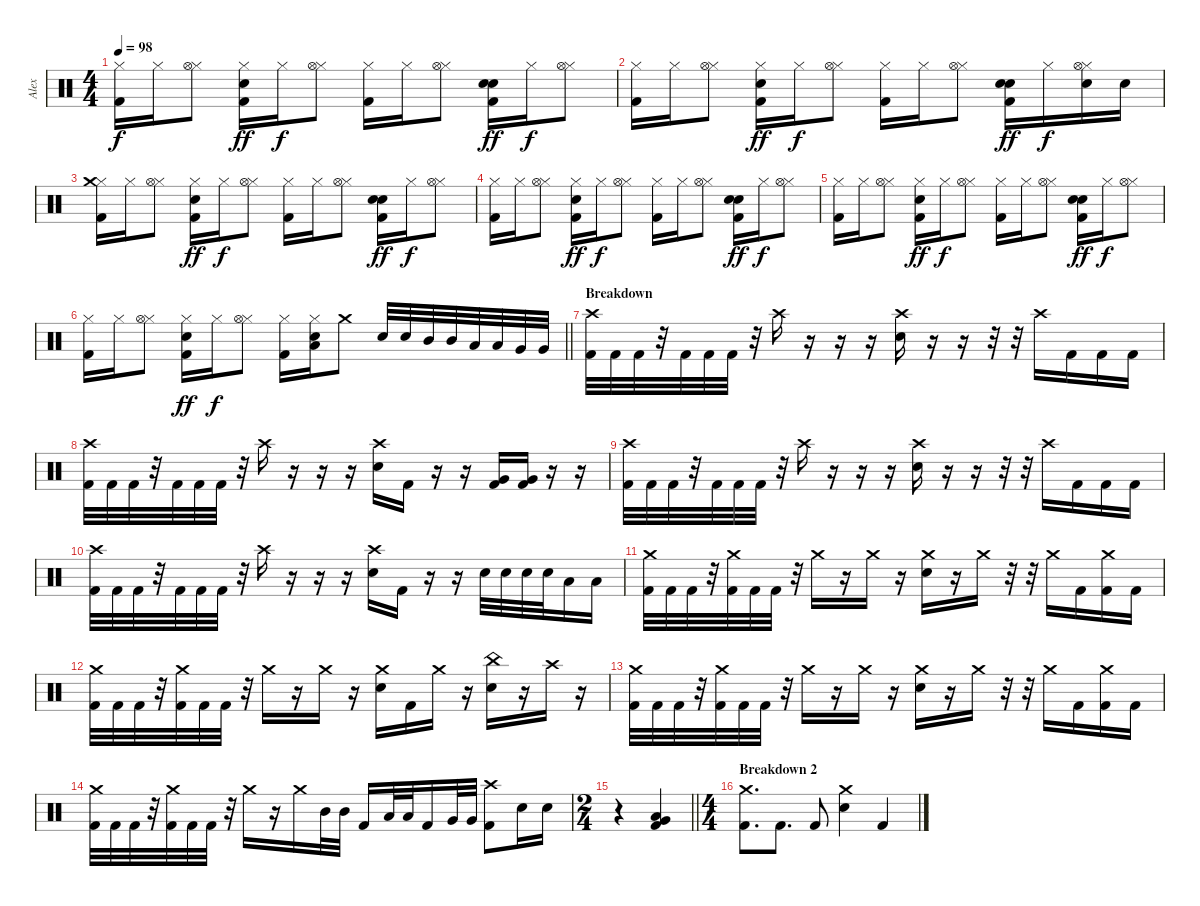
\track ("Alex" "Alex") {instrument percussion}
\staff {score}
\articulation defaults
\ts (4 4)
\tempo 98
\clef neutral
\ks c
("Hi-Hat (closed)" "Kick (hit) 2").16{dy f} "Hi-Hat (closed)".16 ("Hi-Hat (closed)" "Hi-Hat (open)").8 ("Hi-Hat (closed)" "Snare (hit) 2" "Kick (hit) 2").16{dy ff} "Hi-Hat (closed)".16{dy f} ("Hi-Hat (closed)" "Hi-Hat (open)").8 ("Hi-Hat (closed)" "Kick (hit) 2").16 "Hi-Hat (closed)".16 ("Hi-Hat (closed)" "Hi-Hat (open)").8 ("Snare (hit)" "Snare (hit) 2" "Kick (hit) 2").16{dy ff} "Hi-Hat (closed)".16{dy f} ("Hi-Hat (closed)" "Hi-Hat (open)").8 |
("Hi-Hat (closed)" "Kick (hit) 2").16 "Hi-Hat (closed)".16 ("Hi-Hat (closed)" "Hi-Hat (open)").8 ("Hi-Hat (closed)" "Snare (hit) 2" "Kick (hit) 2").16{dy ff} "Hi-Hat (closed)".16{dy f} ("Hi-Hat (closed)" "Hi-Hat (open)").8 ("Hi-Hat (closed)" "Kick (hit) 2").16 "Hi-Hat (closed)".16 ("Hi-Hat (closed)" "Hi-Hat (open)").8 ("Snare (hit)" "Snare (hit) 2" "Kick (hit) 2").16{dy ff} "Hi-Hat (closed)".16{dy f} ("Hi-Hat (closed)" "Hi-Hat (open)" "Snare (hit) 2").16 "Snare (hit) 2".16 |
("Hi-Hat (closed)" "Crash medium (hit)" "Kick (hit) 2").16 "Hi-Hat (closed)".16 ("Hi-Hat (closed)" "Hi-Hat (open)").8 ("Hi-Hat (closed)" "Snare (hit) 2" "Kick (hit) 2").16{dy ff} "Hi-Hat (closed)".16{dy f} ("Hi-Hat (closed)" "Hi-Hat (open)").8 ("Hi-Hat (closed)" "Kick (hit) 2").16 "Hi-Hat (closed)".16 ("Hi-Hat (closed)" "Hi-Hat (open)").8 ("Snare (hit)" "Snare (hit) 2" "Kick (hit) 2").16{dy ff} "Hi-Hat (closed)".16{dy f} ("Hi-Hat (closed)" "Hi-Hat (open)").8 |
("Hi-Hat (closed)" "Kick (hit) 2").16 "Hi-Hat (closed)".16 ("Hi-Hat (closed)" "Hi-Hat (open)").8 ("Hi-Hat (closed)" "Snare (hit) 2" "Kick (hit) 2").16{dy ff} "Hi-Hat (closed)".16{dy f} ("Hi-Hat (closed)" "Hi-Hat (open)").8 ("Hi-Hat (closed)" "Kick (hit) 2").16 "Hi-Hat (closed)".16 ("Hi-Hat (closed)" "Hi-Hat (open)").8 ("Snare (hit)" "Snare (hit) 2" "Kick (hit) 2").16{dy ff} "Hi-Hat (closed)".16{dy f} ("Hi-Hat (closed)" "Hi-Hat (open)").8 |
("Hi-Hat (closed)" "Kick (hit) 2").16 "Hi-Hat (closed)".16 ("Hi-Hat (closed)" "Hi-Hat (open)").8 ("Hi-Hat (closed)" "Snare (hit) 2" "Kick (hit) 2").16{dy ff} "Hi-Hat (closed)".16{dy f} ("Hi-Hat (closed)" "Hi-Hat (open)").8 ("Hi-Hat (closed)" "Kick (hit) 2").16 "Hi-Hat (closed)".16 ("Hi-Hat (closed)" "Hi-Hat (open)").8 ("Snare (hit)" "Snare (hit) 2" "Kick (hit) 2").16{dy ff} "Hi-Hat (closed)".16{dy f} ("Hi-Hat (closed)" "Hi-Hat (open)").8 |
\barLineRight lightlight
("Hi-Hat (closed)" "Kick (hit) 2").16 "Hi-Hat (closed)".16 ("Hi-Hat (closed)" "Hi-Hat (open)").8 ("Hi-Hat (closed)" "Snare (hit) 2" "Kick (hit) 2").16{dy ff} "Hi-Hat (closed)".16{dy f} ("Hi-Hat (closed)" "Hi-Hat (open)").8 ("Hi-Hat (closed)" "Kick (hit) 2").16 ("Hi-Hat (closed)" "Low Tom (hit)" "Snare (hit) 2").16 "Crash medium (hit)".8 "Snare (hit) 2".32 "Snare (hit) 2".32 "Mid Tom (hit)".32 "Mid Tom (hit)".32 "Low Tom (hit)".32 "Low Tom (hit)".32 "Very Low Tom (hit)".32 "Very Low Tom (hit)".32 |
\section ("" "Breakdown")
("Crash high (hit)" "Kick (hit) 2").32 "Kick (hit) 2".32 "Kick (hit) 2".32 r.32 "Kick (hit) 2".32 "Kick (hit) 2".32 "Kick (hit) 2".32 r.32 "Crash high (hit)".16 r.16 r.16 r.16 ("Crash high (hit)" "Snare (hit) 2").16 r.16 r.16 r.32 r.32 "Crash high (hit)".16 "Kick (hit) 2".16 "Kick (hit) 2".16 "Kick (hit) 2".16 |
("Crash high (hit)" "Kick (hit) 2").32 "Kick (hit) 2".32 "Kick (hit) 2".32 r.32 "Kick (hit) 2".32 "Kick (hit) 2".32 "Kick (hit) 2".32 r.32 "Crash high (hit)".16 r.16 r.16 r.16 ("Crash high (hit)" "Snare (hit) 2").16 "Kick (hit) 2".16 r.16 r.16 ("Very Low Tom (hit)" "Kick (hit) 2").16 ("Very Low Tom (hit)" "Kick (hit) 2").16 r.16 r.16 |
("Crash high (hit)" "Kick (hit) 2").32 "Kick (hit) 2".32 "Kick (hit) 2".32 r.32 "Kick (hit) 2".32 "Kick (hit) 2".32 "Kick (hit) 2".32 r.32 "Crash high (hit)".16 r.16 r.16 r.16 ("Crash high (hit)" "Snare (hit) 2").16 r.16 r.16 r.32 r.32 "Crash high (hit)".16 "Kick (hit) 2".16 "Kick (hit) 2".16 "Kick (hit) 2".16 |
("Crash high (hit)" "Kick (hit) 2").32 "Kick (hit) 2".32 "Kick (hit) 2".32 r.32 "Kick (hit) 2".32 "Kick (hit) 2".32 "Kick (hit) 2".32 r.32 "Crash high (hit)".16 r.16 r.16 r.16 ("Crash high (hit)" "Snare (hit) 2").16 "Kick (hit) 2".16 r.16 r.16 "Snare (hit) 2".32 "Snare (hit) 2".32 "Snare (hit) 2".32 "Snare (hit) 2".32 "Low Tom (hit)".16 "Low Tom (hit)".16 |
("Crash medium (hit)" "Kick (hit) 2").32 "Kick (hit) 2".32 "Kick (hit) 2".32 r.32 ("Crash medium (hit)" "Kick (hit) 2").32 "Kick (hit) 2".32 "Kick (hit) 2".32 r.32 "Crash medium (hit)".16 r.16 "Crash medium (hit)".16 r.16 ("Crash medium (hit)" "Snare (hit) 2").16 r.16 "Crash medium (hit)".16 r.32 r.32 "Crash medium (hit)".16 "Kick (hit) 2".16 ("Crash medium (hit)" "Kick (hit) 2").16 "Kick (hit) 2".16 |
("Crash medium (hit)" "Kick (hit) 2").32 "Kick (hit) 2".32 "Kick (hit) 2".32 r.32 ("Crash medium (hit)" "Kick (hit) 2").32 "Kick (hit) 2".32 "Kick (hit) 2".32 r.32 "Crash medium (hit)".16 r.16 "Crash medium (hit)".16 r.16 ("Crash medium (hit)" "Snare (hit) 2").16 "Kick (hit) 2".16 "Crash medium (hit)".16 r.16 ("China (hit)" "Snare (hit) 2").16 r.16 "Crash high (hit)".16 r.16 |
("Crash medium (hit)" "Kick (hit) 2").32 "Kick (hit) 2".32 "Kick (hit) 2".32 r.32 ("Crash medium (hit)" "Kick (hit) 2").32 "Kick (hit) 2".32 "Kick (hit) 2".32 r.32 "Crash medium (hit)".16 r.16 "Crash medium (hit)".16 r.16 ("Crash medium (hit)" "Snare (hit) 2").16 r.16 "Crash medium (hit)".16 r.32 r.32 "Crash medium (hit)".16 "Kick (hit) 2".16 ("Crash medium (hit)" "Kick (hit) 2").16 "Kick (hit) 2".16 |
("Crash medium (hit)" "Kick (hit) 2").32 "Kick (hit) 2".32 "Kick (hit) 2".32 r.32 ("Crash medium (hit)" "Kick (hit) 2").32 "Kick (hit) 2".32 "Kick (hit) 2".32 r.32 "Crash medium (hit)".16 r.16 "Crash medium (hit)".16 "Mid Tom (hit)".32 "Mid Tom (hit)".32 "Kick (hit) 2".16 "Low Tom (hit)".32 "Low Tom (hit)".32 "Kick (hit) 2".16 "Very Low Tom (hit)".32 "Very Low Tom (hit)".32 ("Crash high (hit)" "Kick (hit) 2").8 "Snare (hit) 2".16 "Snare (hit) 2".16 |
\ts (2 4)
\barLineRight lightlight
r.4 ("Low Tom (hit)" "Very Low Tom (hit)" "Kick (hit) 2").4 |
\ts (4 4)
\section ("" "Breakdown 2")
("Crash medium (hit)" "Kick (hit) 2").8{d} "Kick (hit) 2".8{d} "Kick (hit) 2".8 ("Crash medium (hit)" "Snare (hit) 2").4 "Kick (hit) 2".4
